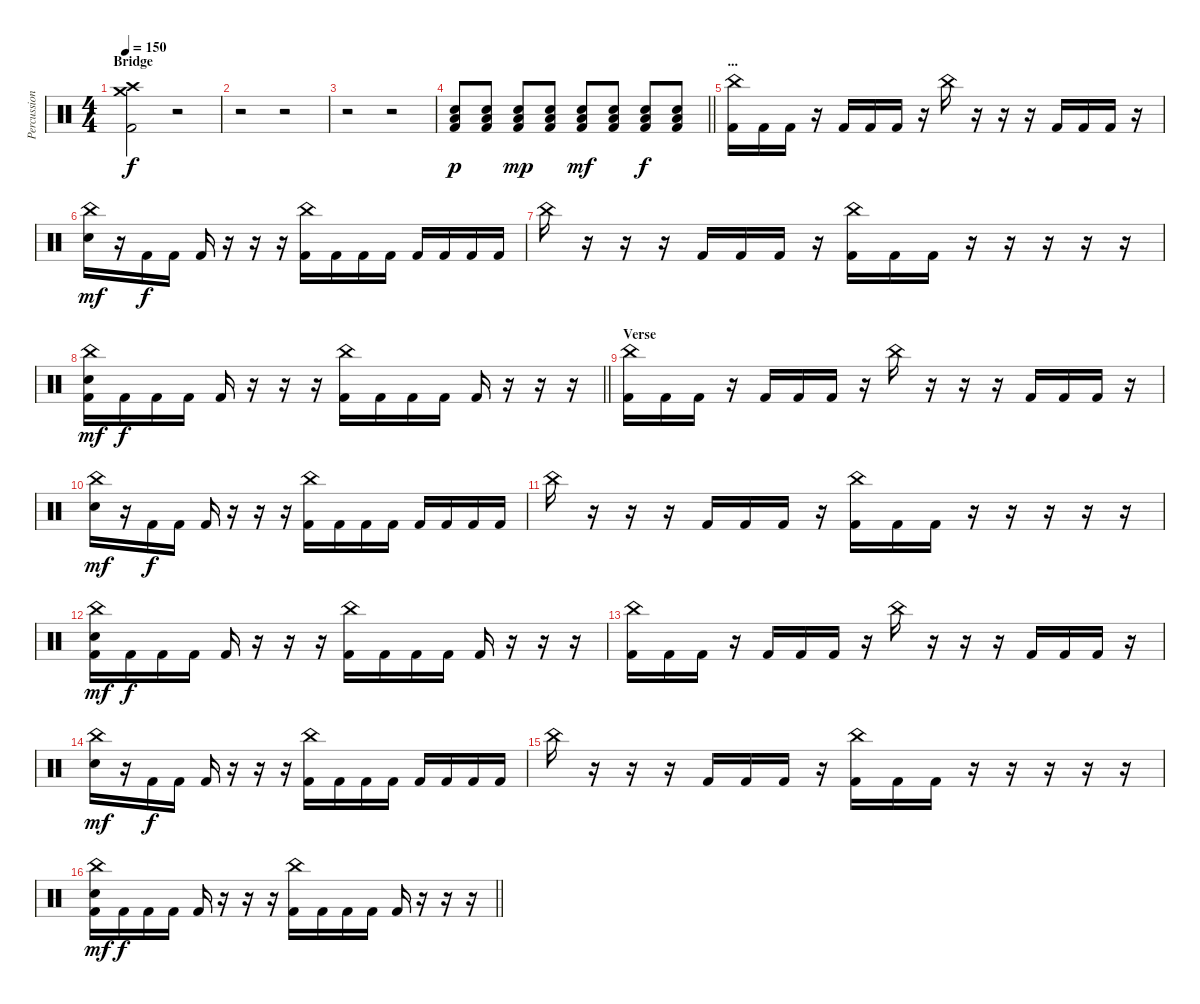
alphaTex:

\track ("Percussion" "Percussion") {instrument percussion}
\staff {score}
\articulation defaults
\ts (4 4)
\section ("" "Bridge")
\tempo 150
\clef neutral
\ks c
("Crash medium (hit)" "Crash high (hit)" "Kick (hit) 2").2{dy f} r.2 |
r.2 r.2 |
r.2 r.2 |
\barLineRight lightlight
("Low Floor Tom (hit)" "Electric Snare (hit)" "Kick (hit) 2").8{dy p} ("Low Floor Tom (hit)" "Electric Snare (hit)" "Kick (hit) 2").8 ("Low Floor Tom (hit)" "Electric Snare (hit)" "Kick (hit) 2").8{dy mp} ("Low Floor Tom (hit)" "Electric Snare (hit)" "Kick (hit) 2").8 ("Low Floor Tom (hit)" "Electric Snare (hit)" "Kick (hit) 2").8{dy mf} ("Low Floor Tom (hit)" "Electric Snare (hit)" "Kick (hit) 2").8 ("Low Floor Tom (hit)" "Electric Snare (hit)" "Kick (hit) 2").8{dy f} ("Low Floor Tom (hit)" "Electric Snare (hit)" "Kick (hit) 2").8 |
\section ("" "...")
("China (hit)" "Kick (hit) 2").16 "Kick (hit) 2".16 "Kick (hit) 2".16 r.16 "Kick (hit) 2".16 "Kick (hit) 2".16 "Kick (hit) 2".16 r.16 "China (hit)".16 r.16 r.16 r.16 "Kick (hit) 2".16 "Kick (hit) 2".16 "Kick (hit) 2".16 r.16 |
("China (hit)" "Electric Snare (hit)").16{dy mf} r.16 "Kick (hit) 2".16{dy f} "Kick (hit) 2".16 "Kick (hit) 2".16 r.16 r.16 r.16 ("China (hit)" "Kick (hit) 2").16 "Kick (hit) 2".16 "Kick (hit) 2".16 "Kick (hit) 2".16 "Kick (hit) 2".16 "Kick (hit) 2".16 "Kick (hit) 2".16 "Kick (hit) 2".16 |
"China (hit)".16 r.16 r.16 r.16 "Kick (hit) 2".16 "Kick (hit) 2".16 "Kick (hit) 2".16 r.16 ("China (hit)" "Kick (hit) 2").16 "Kick (hit) 2".16 "Kick (hit) 2".16 r.16 r.16 r.16 r.16 r.16 |
\barLineRight lightlight
("China (hit)" "Electric Snare (hit)" "Kick (hit) 2").16{dy mf} "Kick (hit) 2".16{dy f} "Kick (hit) 2".16 "Kick (hit) 2".16 "Kick (hit) 2".16 r.16 r.16 r.16 ("China (hit)" "Kick (hit) 2").16 "Kick (hit) 2".16 "Kick (hit) 2".16 "Kick (hit) 2".16 "Kick (hit) 2".16 r.16 r.16 r.16 |
\section ("" "Verse")
("China (hit)" "Kick (hit) 2").16 "Kick (hit) 2".16 "Kick (hit) 2".16 r.16 "Kick (hit) 2".16 "Kick (hit) 2".16 "Kick (hit) 2".16 r.16 "China (hit)".16 r.16 r.16 r.16 "Kick (hit) 2".16 "Kick (hit) 2".16 "Kick (hit) 2".16 r.16 |
("China (hit)" "Electric Snare (hit)").16{dy mf} r.16 "Kick (hit) 2".16{dy f} "Kick (hit) 2".16 "Kick (hit) 2".16 r.16 r.16 r.16 ("China (hit)" "Kick (hit) 2").16 "Kick (hit) 2".16 "Kick (hit) 2".16 "Kick (hit) 2".16 "Kick (hit) 2".16 "Kick (hit) 2".16 "Kick (hit) 2".16 "Kick (hit) 2".16 |
"China (hit)".16 r.16 r.16 r.16 "Kick (hit) 2".16 "Kick (hit) 2".16 "Kick (hit) 2".16 r.16 ("China (hit)" "Kick (hit) 2").16 "Kick (hit) 2".16 "Kick (hit) 2".16 r.16 r.16 r.16 r.16 r.16 |
("China (hit)" "Electric Snare (hit)" "Kick (hit) 2").16{dy mf} "Kick (hit) 2".16{dy f} "Kick (hit) 2".16 "Kick (hit) 2".16 "Kick (hit) 2".16 r.16 r.16 r.16 ("China (hit)" "Kick (hit) 2").16 "Kick (hit) 2".16 "Kick (hit) 2".16 "Kick (hit) 2".16 "Kick (hit) 2".16 r.16 r.16 r.16 |
("China (hit)" "Kick (hit) 2").16 "Kick (hit) 2".16 "Kick (hit) 2".16 r.16 "Kick (hit) 2".16 "Kick (hit) 2".16 "Kick (hit) 2".16 r.16 "China (hit)".16 r.16 r.16 r.16 "Kick (hit) 2".16 "Kick (hit) 2".16 "Kick (hit) 2".16 r.16 |
("China (hit)" "Electric Snare (hit)").16{dy mf} r.16 "Kick (hit) 2".16{dy f} "Kick (hit) 2".16 "Kick (hit) 2".16 r.16 r.16 r.16 ("China (hit)" "Kick (hit) 2").16 "Kick (hit) 2".16 "Kick (hit) 2".16 "Kick (hit) 2".16 "Kick (hit) 2".16 "Kick (hit) 2".16 "Kick (hit) 2".16 "Kick (hit) 2".16 |
"China (hit)".16 r.16 r.16 r.16 "Kick (hit) 2".16 "Kick (hit) 2".16 "Kick (hit) 2".16 r.16 ("China (hit)" "Kick (hit) 2").16 "Kick (hit) 2".16 "Kick (hit) 2".16 r.16 r.16 r.16 r.16 r.16 |
\barLineRight lightlight
("China (hit)" "Electric Snare (hit)" "Kick (hit) 2").16{dy mf} "Kick (hit) 2".16{dy f} "Kick (hit) 2".16 "Kick (hit) 2".16 "Kick (hit) 2".16 r.16 r.16 r.16 ("China (hit)" "Kick (hit) 2").16 "Kick (hit) 2".16 "Kick (hit) 2".16 "Kick (hit) 2".16 "Kick (hit) 2".16 r.16 r.16 r.16
